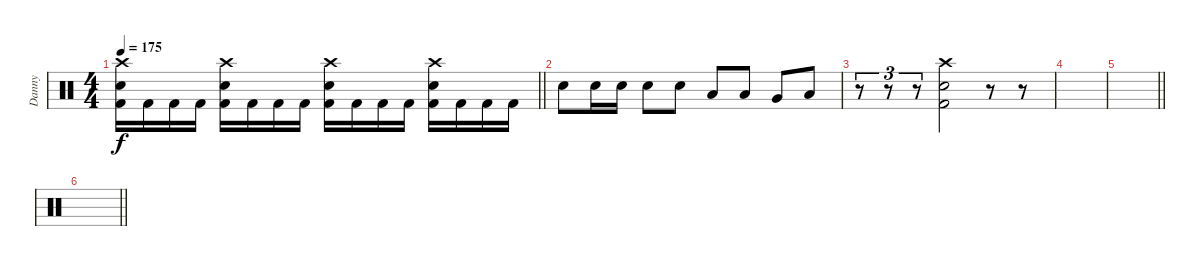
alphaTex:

\track ("Danny" "Danny") {instrument percussion}
\staff {score}
\articulation defaults
\ts (4 4)
\tempo 175
\clef neutral
\barLineRight lightlight
\ks c
("Crash high (hit)" "Electric Snare (hit)" "Kick (hit) 2").16{dy f} "Kick (hit) 2".16 "Kick (hit) 2".16 "Kick (hit) 2".16 ("Crash high (hit)" "Electric Snare (hit)" "Kick (hit) 2").16 "Kick (hit) 2".16 "Kick (hit) 2".16 "Kick (hit) 2".16 ("Crash high (hit)" "Electric Snare (hit)" "Kick (hit) 2").16 "Kick (hit) 2".16 "Kick (hit) 2".16 "Kick (hit) 2".16 ("Crash high (hit)" "Electric Snare (hit)" "Kick (hit) 2").16 "Kick (hit) 2".16 "Kick (hit) 2".16 "Kick (hit) 2".16 |
"Electric Snare (hit)".8 "Electric Snare (hit)".16 "Electric Snare (hit)".16 "Electric Snare (hit)".8 "Electric Snare (hit)".8 "Low Tom (hit)".8 "Low Tom (hit)".8 "Very Low Tom (hit)".8 "Low Floor Tom (hit)".8 |
r.8{tu (3 2)} r.8{tu (3 2)} r.8{tu (3 2)} ("Crash high (hit)" "Electric Snare (hit)" "Kick (hit) 2").2 r.8 r.8 |
|
\barLineRight lightlight
|
\barLineRight lightlight
